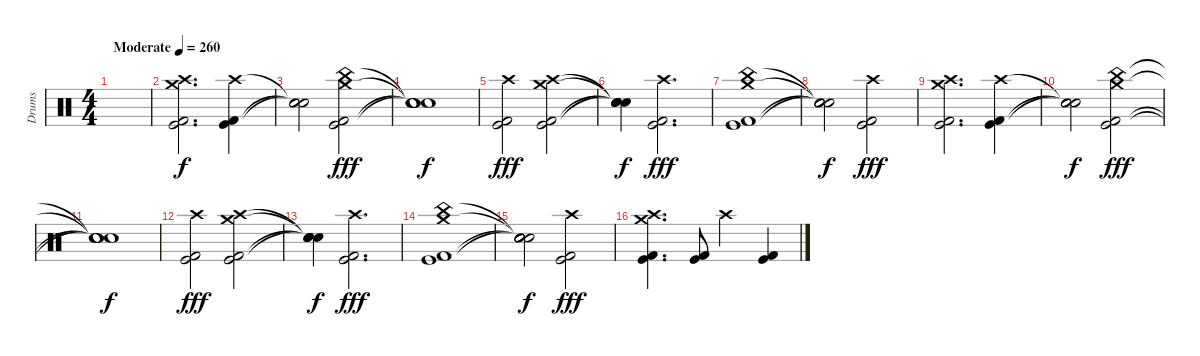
\track ("Drums" "Drums") {instrument percussion}
\staff {score}
\articulation defaults
\ts (4 4)
\tempo (260 "Moderate")
\clef neutral
\ks c
|
("Kick (hit)" "Kick (hit) 2" "Crash high (hit)" "Crash medium (hit)").2{d} ("Kick (hit)" "Kick (hit) 2" "Crash high (hit)").4 |
("Snare (hit)"{t} "Snare (hit)"{t} "Snare (hit)"{t}).2{dy f} ("Kick (hit)" "Kick (hit) 2" "China (hit)" "Crash medium (hit)").2{dy fff} |
("Snare (hit)"{t} "Snare (hit)"{t} "Snare (hit)"{t} "Snare (hit)"{t}).1{dy f} |
("Kick (hit)" "Kick (hit) 2" "Crash high (hit)").2{dy fff} ("Kick (hit)" "Kick (hit) 2" "Crash high (hit)" "Crash medium (hit)").2 |
("Snare (hit)"{t} "Snare (hit)"{t} "Snare (hit)"{t} "Snare (hit)"{t}).4{dy f} ("Kick (hit)" "Kick (hit) 2" "Crash high (hit)").2{d dy fff} |
("Kick (hit)" "Kick (hit) 2" "China (hit)" "Crash medium (hit)").1 |
("Snare (hit)"{t} "Snare (hit)"{t} "Snare (hit)"{t} "Snare (hit)"{t}).2{dy f} ("Kick (hit)" "Kick (hit) 2" "Crash high (hit)").2{dy fff} |
("Kick (hit)" "Kick (hit) 2" "Crash high (hit)" "Crash medium (hit)").2{d} ("Kick (hit)" "Kick (hit) 2" "Crash high (hit)").4 |
("Snare (hit)"{t} "Snare (hit)"{t} "Snare (hit)"{t}).2{dy f} ("Kick (hit)" "Kick (hit) 2" "China (hit)" "Crash medium (hit)").2{dy fff} |
("Snare (hit)"{t} "Snare (hit)"{t} "Snare (hit)"{t} "Snare (hit)"{t}).1{dy f} |
("Kick (hit)" "Kick (hit) 2" "Crash high (hit)").2{dy fff} ("Kick (hit)" "Kick (hit) 2" "Crash high (hit)" "Crash medium (hit)").2 |
("Snare (hit)"{t} "Snare (hit)"{t} "Snare (hit)"{t} "Snare (hit)"{t}).4{dy f} ("Kick (hit)" "Kick (hit) 2" "Crash high (hit)").2{d dy fff} |
("Kick (hit)" "Kick (hit) 2" "China (hit)" "Crash medium (hit)").1 |
("Snare (hit)"{t} "Snare (hit)"{t} "Snare (hit)"{t} "Snare (hit)"{t}).2{dy f} ("Kick (hit)" "Kick (hit) 2" "Crash high (hit)").2{dy fff} |
("Kick (hit)" "Kick (hit) 2" "Crash high (hit)" "Crash medium (hit)").4{d} ("Kick (hit)" "Kick (hit) 2").8 "Crash high (hit)".4 ("Kick (hit)" "Kick (hit) 2").4
